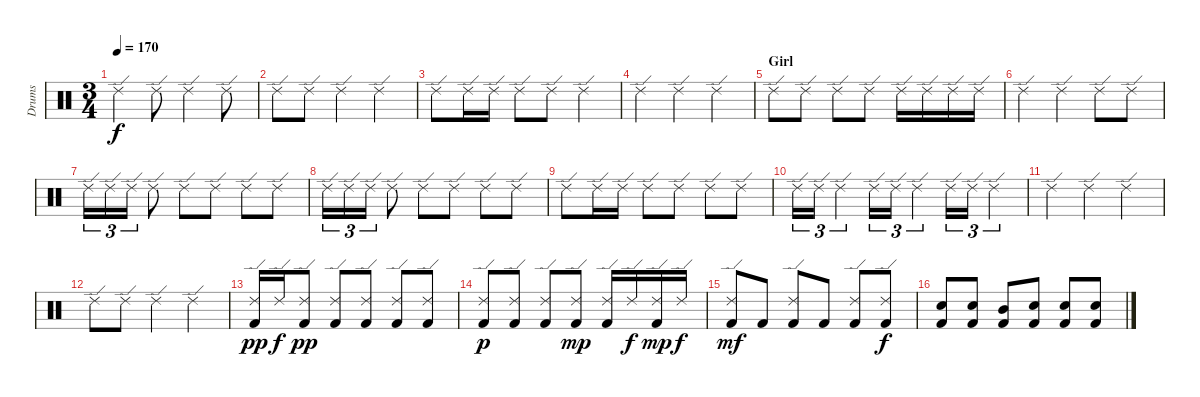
\track ("Drums" "Drums") {instrument percussion}
\staff {score}
\articulation defaults
\ts (3 4)
\tempo 170
\clef neutral
\ks c "Ride (edge) 2".4{dy f} "Ride (edge) 2".8 "Ride (edge) 2".4 "Ride (edge) 2".8
|
"Ride (edge) 2".8 "Ride (edge) 2".8 "Ride (edge) 2".4 "Ride (edge) 2".4 |
"Ride (edge) 2".8 "Ride (edge) 2".16 "Ride (edge) 2".16 "Ride (edge) 2".8 "Ride (edge) 2".8 "Ride (edge) 2".4 |
"Ride (edge) 2".4 "Ride (edge) 2".4 "Ride (edge) 2".4 |
\section ("" "Girl")
"Ride (edge) 2".8 "Ride (edge) 2".8 "Ride (edge) 2".8 "Ride (edge) 2".8 "Ride (edge) 2".16 "Ride (edge) 2".16 "Ride (edge) 2".16 "Ride (edge) 2".16 |
"Ride (edge) 2".4 "Ride (edge) 2".4 "Ride (edge) 2".8 "Ride (edge) 2".8 |
"Ride (edge) 2".16{tu (3 2)} "Ride (edge) 2".16{tu (3 2)} "Ride (edge) 2".16{tu (3 2)} "Ride (edge) 2".8 "Ride (edge) 2".8 "Ride (edge) 2".8 "Ride (edge) 2".8 "Ride (edge) 2".8 |
"Ride (edge) 2".16{tu (3 2)} "Ride (edge) 2".16{tu (3 2)} "Ride (edge) 2".16{tu (3 2)} "Ride (edge) 2".8 "Ride (edge) 2".8 "Ride (edge) 2".8 "Ride (edge) 2".8 "Ride (edge) 2".8 |
"Ride (edge) 2".8 "Ride (edge) 2".16 "Ride (edge) 2".16 "Ride (edge) 2".8 "Ride (edge) 2".8 "Ride (edge) 2".8 "Ride (edge) 2".8 |
"Ride (edge) 2".16{tu (3 2)} "Ride (edge) 2".16{tu (3 2)} "Ride (edge) 2".4{tu (3 2)} "Ride (edge) 2".16{tu (3 2)} "Ride (edge) 2".16{tu (3 2)} "Ride (edge) 2".4{tu (3 2)} "Ride (edge) 2".16{tu (3 2)} "Ride (edge) 2".16{tu (3 2)} "Ride (edge) 2".4{tu (3 2)} |
"Ride (edge) 2".4 "Ride (edge) 2".4 "Ride (edge) 2".4 |
"Ride (edge) 2".8 "Ride (edge) 2".8 "Ride (edge) 2".4 "Ride (edge) 2".4 |
("Kick (hit) 2" "Ride (edge) 2").16{dy pp} "Ride (edge) 2".16{dy f} ("Kick (hit) 2" "Ride (edge) 2").8{dy pp} ("Kick (hit) 2" "Ride (edge) 2").8 ("Kick (hit) 2" "Ride (edge) 2").8 ("Kick (hit) 2" "Ride (edge) 2").8 ("Kick (hit) 2" "Ride (edge) 2").8 |
("Kick (hit) 2" "Ride (edge) 2").8{dy p} ("Kick (hit) 2" "Ride (edge) 2").8 ("Kick (hit) 2" "Ride (edge) 2").8 ("Kick (hit) 2" "Ride (edge) 2").8{dy mp} ("Kick (hit) 2" "Ride (edge) 2").16 "Ride (edge) 2".16{dy f} ("Kick (hit) 2" "Ride (edge) 2").16{dy mp} "Ride (edge) 2".16{dy f} |
("Kick (hit) 2" "Ride (edge) 2").8{dy mf} "Kick (hit) 2".8 ("Kick (hit) 2" "Ride (edge) 2").8 "Kick (hit) 2".8 ("Kick (hit) 2" "Ride (edge) 2").8 ("Kick (hit) 2" "Ride (edge) 2").8{dy f} |
("Kick (hit) 2" "Snare (hit) 2").8 ("Kick (hit) 2" "Snare (hit) 2").8 ("Kick (hit) 2" "Mid Tom (hit)").8 ("Kick (hit) 2" "Snare (hit) 2").8 ("Kick (hit) 2" "Snare (hit) 2").8 ("Kick (hit) 2" "Snare (hit) 2").8
